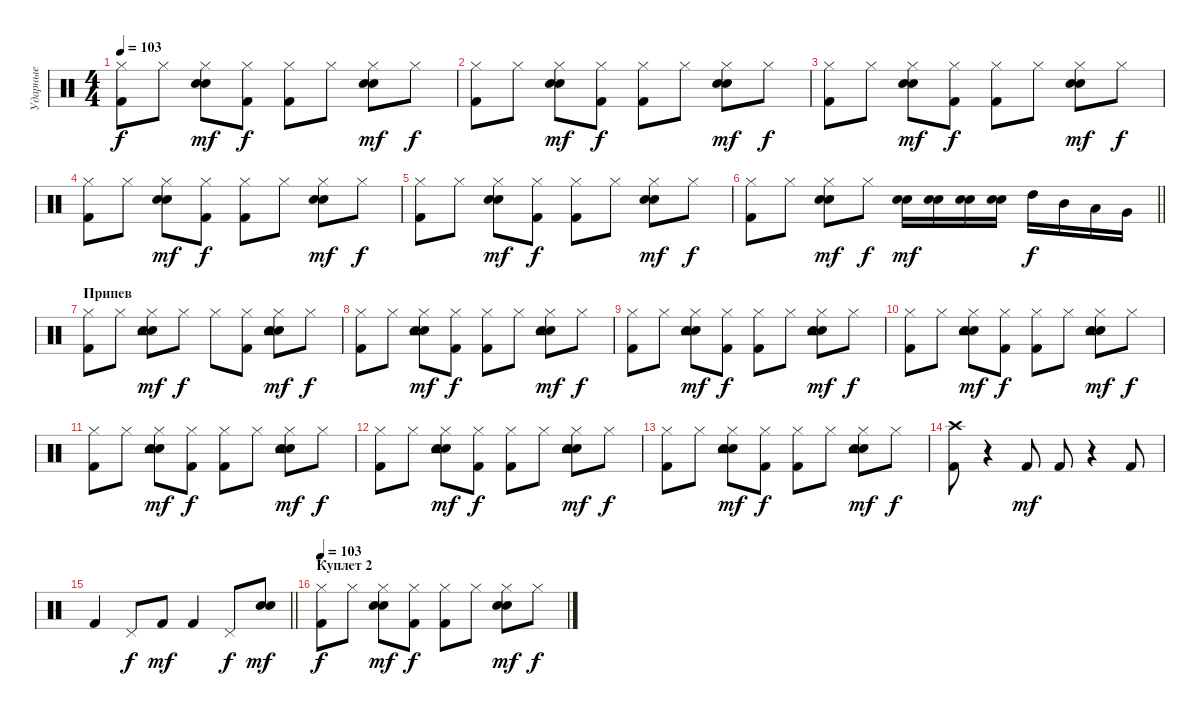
\track ("Ударные" "Ударные") {instrument percussion}
\staff {score}
\articulation defaults
\ts (4 4)
\tempo 103
\clef neutral
\ks c
("Hi-Hat (closed)" "Kick (hit) 2").8{dy f} "Hi-Hat (closed)".8 ("Hi-Hat (closed)" "Electric Snare (hit)" "Snare (hit) 2").8{dy mf} ("Hi-Hat (closed)" "Kick (hit) 2").8{dy f} ("Hi-Hat (closed)" "Kick (hit) 2").8 "Hi-Hat (closed)".8 ("Hi-Hat (closed)" "Electric Snare (hit)" "Snare (hit) 2").8{dy mf} "Hi-Hat (closed)".8{dy f} |
("Hi-Hat (closed)" "Kick (hit) 2").8 "Hi-Hat (closed)".8 ("Hi-Hat (closed)" "Electric Snare (hit)" "Snare (hit) 2").8{dy mf} ("Hi-Hat (closed)" "Kick (hit) 2").8{dy f} ("Hi-Hat (closed)" "Kick (hit) 2").8 "Hi-Hat (closed)".8 ("Hi-Hat (closed)" "Electric Snare (hit)" "Snare (hit) 2").8{dy mf} "Hi-Hat (closed)".8{dy f} |
("Hi-Hat (closed)" "Kick (hit) 2").8 "Hi-Hat (closed)".8 ("Hi-Hat (closed)" "Electric Snare (hit)" "Snare (hit) 2").8{dy mf} ("Hi-Hat (closed)" "Kick (hit) 2").8{dy f} ("Hi-Hat (closed)" "Kick (hit) 2").8 "Hi-Hat (closed)".8 ("Hi-Hat (closed)" "Electric Snare (hit)" "Snare (hit) 2").8{dy mf} "Hi-Hat (closed)".8{dy f} |
("Hi-Hat (closed)" "Kick (hit) 2").8 "Hi-Hat (closed)".8 ("Hi-Hat (closed)" "Electric Snare (hit)" "Snare (hit) 2").8{dy mf} ("Hi-Hat (closed)" "Kick (hit) 2").8{dy f} ("Hi-Hat (closed)" "Kick (hit) 2").8 "Hi-Hat (closed)".8 ("Hi-Hat (closed)" "Electric Snare (hit)" "Snare (hit) 2").8{dy mf} "Hi-Hat (closed)".8{dy f} |
("Hi-Hat (closed)" "Kick (hit) 2").8 "Hi-Hat (closed)".8 ("Hi-Hat (closed)" "Electric Snare (hit)" "Snare (hit) 2").8{dy mf} ("Hi-Hat (closed)" "Kick (hit) 2").8{dy f} ("Hi-Hat (closed)" "Kick (hit) 2").8 "Hi-Hat (closed)".8 ("Hi-Hat (closed)" "Electric Snare (hit)" "Snare (hit) 2").8{dy mf} "Hi-Hat (closed)".8{dy f} |
\barLineRight lightlight
("Hi-Hat (closed)" "Kick (hit) 2").8 "Hi-Hat (closed)".8 ("Hi-Hat (closed)" "Electric Snare (hit)" "Snare (hit) 2").8{dy mf} "Hi-Hat (closed)".8{dy f} ("Electric Snare (hit)" "Snare (hit) 2").16{dy mf} ("Electric Snare (hit)" "Snare (hit) 2").16 ("Electric Snare (hit)" "Snare (hit) 2").16 ("Electric Snare (hit)" "Snare (hit) 2").16 "High Tom (hit)".16{dy f} "Mid Tom (hit)".16 "Low Tom (hit)".16 "Very Low Tom (hit)".16 |
\section ("" "Припев")
("Hi-Hat (closed)" "Kick (hit) 2").8 "Hi-Hat (closed)".8 ("Hi-Hat (closed)" "Electric Snare (hit)" "Snare (hit) 2" "Tambourine (hit)").8{dy mf} "Hi-Hat (closed)".8{dy f} "Hi-Hat (closed)".8 ("Hi-Hat (closed)" "Kick (hit) 2").8 ("Hi-Hat (closed)" "Electric Snare (hit)" "Snare (hit) 2" "Tambourine (hit)").8{dy mf} "Hi-Hat (closed)".8{dy f} |
("Hi-Hat (closed)" "Kick (hit) 2").8 "Hi-Hat (closed)".8 ("Hi-Hat (closed)" "Electric Snare (hit)" "Snare (hit) 2" "Tambourine (hit)").8{dy mf} ("Hi-Hat (closed)" "Kick (hit) 2").8{dy f} ("Hi-Hat (closed)" "Kick (hit) 2").8 "Hi-Hat (closed)".8 ("Hi-Hat (closed)" "Electric Snare (hit)" "Snare (hit) 2" "Tambourine (hit)").8{dy mf} "Hi-Hat (closed)".8{dy f} |
("Hi-Hat (closed)" "Kick (hit) 2").8 "Hi-Hat (closed)".8 ("Hi-Hat (closed)" "Electric Snare (hit)" "Snare (hit) 2" "Tambourine (hit)").8{dy mf} ("Hi-Hat (closed)" "Kick (hit) 2").8{dy f} ("Hi-Hat (closed)" "Kick (hit) 2").8 "Hi-Hat (closed)".8 ("Hi-Hat (closed)" "Electric Snare (hit)" "Snare (hit) 2" "Tambourine (hit)").8{dy mf} "Hi-Hat (closed)".8{dy f} |
("Hi-Hat (closed)" "Kick (hit) 2").8 "Hi-Hat (closed)".8 ("Hi-Hat (closed)" "Electric Snare (hit)" "Snare (hit) 2" "Tambourine (hit)").8{dy mf} ("Hi-Hat (closed)" "Kick (hit) 2").8{dy f} ("Hi-Hat (closed)" "Kick (hit) 2").8 "Hi-Hat (closed)".8 ("Hi-Hat (closed)" "Electric Snare (hit)" "Snare (hit) 2" "Tambourine (hit)").8{dy mf} "Hi-Hat (closed)".8{dy f} |
("Hi-Hat (closed)" "Kick (hit) 2").8 "Hi-Hat (closed)".8 ("Hi-Hat (closed)" "Electric Snare (hit)" "Snare (hit) 2" "Tambourine (hit)").8{dy mf} ("Hi-Hat (closed)" "Kick (hit) 2").8{dy f} ("Hi-Hat (closed)" "Kick (hit) 2").8 "Hi-Hat (closed)".8 ("Hi-Hat (closed)" "Electric Snare (hit)" "Snare (hit) 2" "Tambourine (hit)").8{dy mf} "Hi-Hat (closed)".8{dy f} |
("Hi-Hat (closed)" "Kick (hit) 2").8 "Hi-Hat (closed)".8 ("Hi-Hat (closed)" "Electric Snare (hit)" "Snare (hit) 2" "Tambourine (hit)").8{dy mf} ("Hi-Hat (closed)" "Kick (hit) 2").8{dy f} ("Hi-Hat (closed)" "Kick (hit) 2").8 "Hi-Hat (closed)".8 ("Hi-Hat (closed)" "Electric Snare (hit)" "Snare (hit) 2" "Tambourine (hit)").8{dy mf} "Hi-Hat (closed)".8{dy f} |
("Hi-Hat (closed)" "Kick (hit) 2").8 "Hi-Hat (closed)".8 ("Hi-Hat (closed)" "Electric Snare (hit)" "Snare (hit) 2" "Tambourine (hit)").8{dy mf} ("Hi-Hat (closed)" "Kick (hit) 2").8{dy f} ("Hi-Hat (closed)" "Kick (hit) 2").8 "Hi-Hat (closed)".8 ("Hi-Hat (closed)" "Electric Snare (hit)" "Snare (hit) 2" "Tambourine (hit)").8{dy mf} "Hi-Hat (closed)".8{dy f} |
("Crash high (hit)" "Kick (hit) 2").8 r.4 "Kick (hit) 2".8{dy mf} "Kick (hit) 2".8 r.4 "Kick (hit) 2".8 |
\barLineRight lightlight "Kick (hit) 2".4 "Pedal Hi-Hat (hit)".8{dy f} "Kick (hit) 2".8{dy mf} "Kick (hit) 2".4 "Pedal Hi-Hat (hit)".8{dy f}
("Electric Snare (hit)" "Snare (hit) 2").8{dy mf} |
\section ("" "Куплет 2")
\tempo 103
("Hi-Hat (closed)" "Kick (hit) 2").8{dy f} "Hi-Hat (closed)".8 ("Hi-Hat (closed)" "Electric Snare (hit)" "Snare (hit) 2").8{dy mf} ("Hi-Hat (closed)" "Kick (hit) 2").8{dy f} ("Hi-Hat (closed)" "Kick (hit) 2").8 "Hi-Hat (closed)".8 ("Hi-Hat (closed)" "Electric Snare (hit)" "Snare (hit) 2").8{dy mf} "Hi-Hat (closed)".8{dy f}
